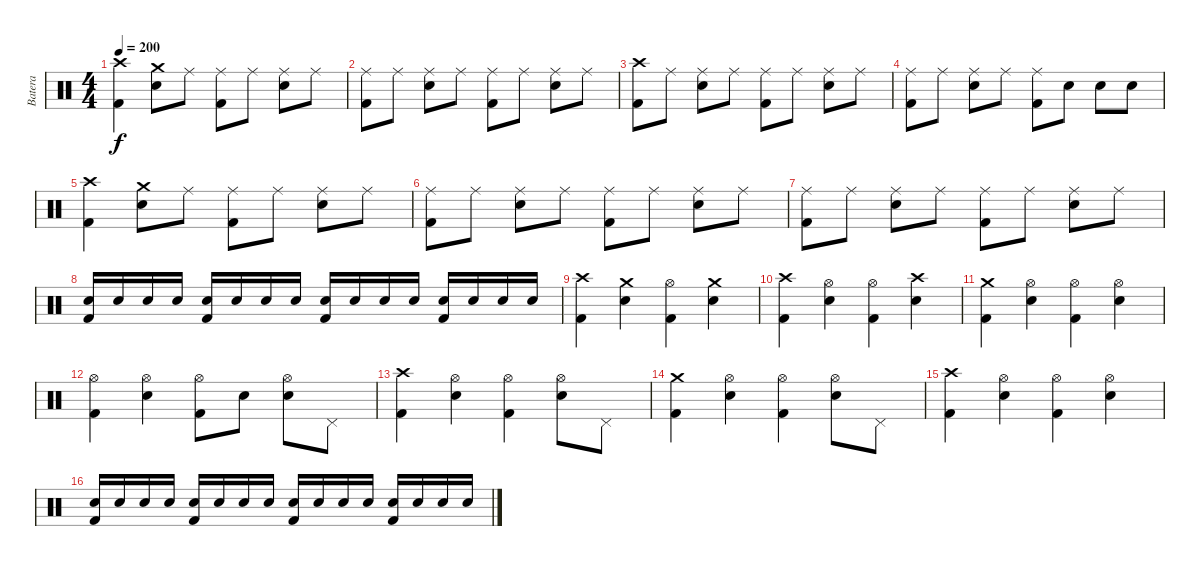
\track ("Batera" "Batera") {instrument percussion}
\staff {score}
\articulation defaults
\ts (4 4)
\tempo 200
\clef neutral
\ks c
("Crash high (hit)" "Kick (hit) 2").4{dy f} ("Crash medium (hit)" "Electric Snare (hit)").8 "Ride (middle)".8 ("Ride (middle)" "Kick (hit) 2").8 "Ride (middle)".8 ("Ride (middle)" "Electric Snare (hit)").8 "Ride (middle)".8 |
("Ride (middle)" "Kick (hit) 2").8 "Ride (middle)".8 ("Ride (middle)" "Electric Snare (hit)").8 "Ride (middle)".8 ("Ride (middle)" "Kick (hit) 2").8 "Ride (middle)".8 ("Ride (middle)" "Electric Snare (hit)").8 "Ride (middle)".8 |
("Crash high (hit)" "Kick (hit) 2").8 "Ride (middle)".8 ("Ride (middle)" "Electric Snare (hit)").8 "Ride (middle)".8 ("Ride (middle)" "Kick (hit) 2").8 "Ride (middle)".8 ("Ride (middle)" "Electric Snare (hit)").8 "Ride (middle)".8 |
("Ride (middle)" "Kick (hit) 2").8 "Ride (middle)".8 ("Ride (middle)" "Electric Snare (hit)").8 "Ride (middle)".8 ("Ride (middle)" "Kick (hit) 2").8 "Electric Snare (hit)".8 "Electric Snare (hit)".8 "Electric Snare (hit)".8 |
("Crash high (hit)" "Kick (hit) 2").4 ("Crash medium (hit)" "Electric Snare (hit)").8 "Ride (middle)".8 ("Ride (middle)" "Kick (hit) 2").8 "Ride (middle)".8 ("Ride (middle)" "Electric Snare (hit)").8 "Ride (middle)".8 |
("Ride (middle)" "Kick (hit) 2").8 "Ride (middle)".8 ("Ride (middle)" "Electric Snare (hit)").8 "Ride (middle)".8 ("Ride (middle)" "Kick (hit) 2").8 "Ride (middle)".8 ("Ride (middle)" "Electric Snare (hit)").8 "Ride (middle)".8 |
("Ride (middle)" "Kick (hit) 2").8 "Ride (middle)".8 ("Ride (middle)" "Electric Snare (hit)").8 "Ride (middle)".8 ("Ride (middle)" "Kick (hit) 2").8 "Ride (middle)".8 ("Ride (middle)" "Electric Snare (hit)").8 "Ride (middle)".8 |
("Electric Snare (hit)" "Kick (hit) 2").16 "Electric Snare (hit)".16 "Electric Snare (hit)".16 "Electric Snare (hit)".16 ("Electric Snare (hit)" "Kick (hit) 2").16 "Electric Snare (hit)".16 "Electric Snare (hit)".16 "Electric Snare (hit)".16 ("Electric Snare (hit)" "Kick (hit) 2").16 "Electric Snare (hit)".16 "Electric Snare (hit)".16 "Electric Snare (hit)".16 ("Electric Snare (hit)" "Kick (hit) 2").16 "Electric Snare (hit)".16 "Electric Snare (hit)".16 "Electric Snare (hit)".16 |
("Crash high (hit)" "Kick (hit) 2").4 ("Crash medium (hit)" "Electric Snare (hit)").4 ("Hi-Hat (open)" "Kick (hit) 2").4 ("Crash medium (hit)" "Electric Snare (hit)").4 |
("Crash high (hit)" "Kick (hit) 2").4 ("Hi-Hat (open)" "Electric Snare (hit)").4 ("Hi-Hat (open)" "Kick (hit) 2").4 ("Crash high (hit)" "Electric Snare (hit)").4 |
("Crash medium (hit)" "Kick (hit) 2").4 ("Hi-Hat (open)" "Electric Snare (hit)").4 ("Hi-Hat (open)" "Kick (hit) 2").4 ("Hi-Hat (open)" "Electric Snare (hit)").4 |
("Hi-Hat (open)" "Kick (hit) 2").4 ("Hi-Hat (open)" "Electric Snare (hit)").4 ("Hi-Hat (open)" "Kick (hit) 2").8 "Electric Snare (hit)".8 ("Hi-Hat (open)" "Electric Snare (hit)").8 "Pedal Hi-Hat (hit)".8 |
("Crash high (hit)" "Kick (hit) 2").4 ("Hi-Hat (open)" "Electric Snare (hit)").4 ("Hi-Hat (open)" "Kick (hit) 2").4 ("Hi-Hat (open)" "Electric Snare (hit)").8 "Pedal Hi-Hat (hit)".8 |
("Crash medium (hit)" "Kick (hit) 2").4 ("Hi-Hat (open)" "Electric Snare (hit)").4 ("Hi-Hat (open)" "Kick (hit) 2").4 ("Hi-Hat (open)" "Electric Snare (hit)").8 "Pedal Hi-Hat (hit)".8 |
("Crash high (hit)" "Kick (hit) 2").4 ("Hi-Hat (open)" "Electric Snare (hit)").4 ("Hi-Hat (open)" "Kick (hit) 2").4 ("Hi-Hat (open)" "Electric Snare (hit)").4 |
("Electric Snare (hit)" "Kick (hit) 2").16 "Electric Snare (hit)".16 "Electric Snare (hit)".16 "Electric Snare (hit)".16 ("Electric Snare (hit)" "Kick (hit) 2").16 "Electric Snare (hit)".16 "Electric Snare (hit)".16 "Electric Snare (hit)".16 ("Electric Snare (hit)" "Kick (hit) 2").16 "Electric Snare (hit)".16 "Electric Snare (hit)".16 "Electric Snare (hit)".16 ("Electric Snare (hit)" "Kick (hit) 2").16 "Electric Snare (hit)".16 "Electric Snare (hit)".16 "Electric Snare (hit)".16
